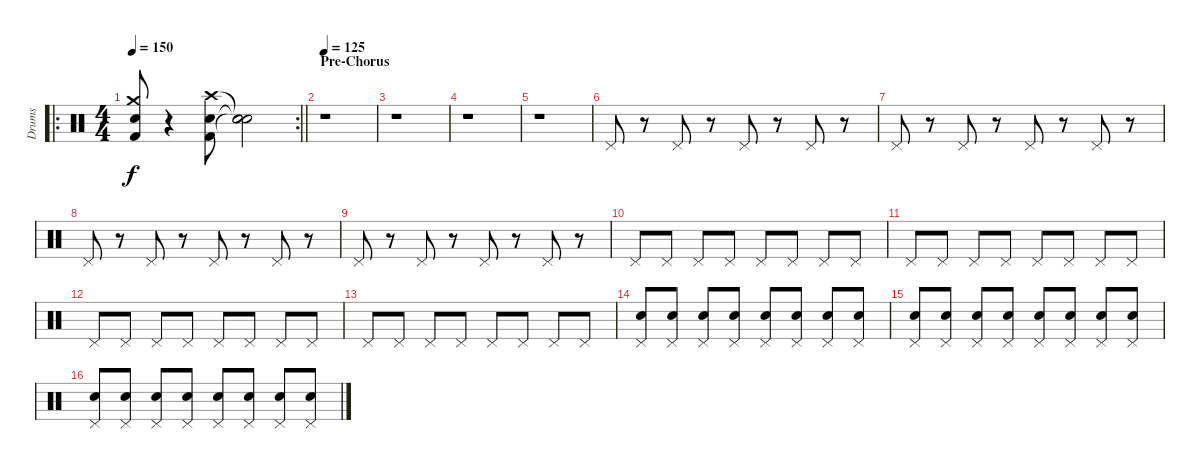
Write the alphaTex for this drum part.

\track ("Drums" "Drums") {instrument percussion}
\staff {score}
\articulation defaults
\ro
\rc 2
\ts (4 4)
\tempo 150
\clef neutral
\barLineRight lightlight
\ks c
("Snare (hit) 2" "Crash medium (hit)" "Kick (hit) 2").8{dy f} r.4 ("Snare (hit) 2" "Crash high (hit)" "Kick (hit) 2").8 ("Snare (hit)"{t} "Snare (hit)"{t} "Snare (hit)"{t}).2 |
\section ("" "Pre-Chorus")
\tempo 125
r.1 |
r.1 |
r.1 |
r.1 |
"Pedal Hi-Hat (hit)".8 r.8 "Pedal Hi-Hat (hit)".8 r.8 "Pedal Hi-Hat (hit)".8 r.8 "Pedal Hi-Hat (hit)".8 r.8 |
"Pedal Hi-Hat (hit)".8 r.8 "Pedal Hi-Hat (hit)".8 r.8 "Pedal Hi-Hat (hit)".8 r.8 "Pedal Hi-Hat (hit)".8 r.8 |
"Pedal Hi-Hat (hit)".8 r.8 "Pedal Hi-Hat (hit)".8 r.8 "Pedal Hi-Hat (hit)".8 r.8 "Pedal Hi-Hat (hit)".8 r.8 |
"Pedal Hi-Hat (hit)".8 r.8 "Pedal Hi-Hat (hit)".8 r.8 "Pedal Hi-Hat (hit)".8 r.8 "Pedal Hi-Hat (hit)".8 r.8 |
"Pedal Hi-Hat (hit)".8 "Pedal Hi-Hat (hit)".8 "Pedal Hi-Hat (hit)".8 "Pedal Hi-Hat (hit)".8 "Pedal Hi-Hat (hit)".8 "Pedal Hi-Hat (hit)".8 "Pedal Hi-Hat (hit)".8 "Pedal Hi-Hat (hit)".8 |
"Pedal Hi-Hat (hit)".8 "Pedal Hi-Hat (hit)".8 "Pedal Hi-Hat (hit)".8 "Pedal Hi-Hat (hit)".8 "Pedal Hi-Hat (hit)".8 "Pedal Hi-Hat (hit)".8 "Pedal Hi-Hat (hit)".8 "Pedal Hi-Hat (hit)".8 |
"Pedal Hi-Hat (hit)".8 "Pedal Hi-Hat (hit)".8 "Pedal Hi-Hat (hit)".8 "Pedal Hi-Hat (hit)".8 "Pedal Hi-Hat (hit)".8 "Pedal Hi-Hat (hit)".8 "Pedal Hi-Hat (hit)".8 "Pedal Hi-Hat (hit)".8 |
"Pedal Hi-Hat (hit)".8 "Pedal Hi-Hat (hit)".8 "Pedal Hi-Hat (hit)".8 "Pedal Hi-Hat (hit)".8 "Pedal Hi-Hat (hit)".8 "Pedal Hi-Hat (hit)".8 "Pedal Hi-Hat (hit)".8 "Pedal Hi-Hat (hit)".8 |
("Snare (hit) 2" "Pedal Hi-Hat (hit)").8{volume 2} ("Snare (hit) 2" "Pedal Hi-Hat (hit)").8 ("Snare (hit) 2" "Pedal Hi-Hat (hit)").8{volume 3} ("Snare (hit) 2" "Pedal Hi-Hat (hit)").8 ("Snare (hit) 2" "Pedal Hi-Hat (hit)").8{volume 4} ("Snare (hit) 2" "Pedal Hi-Hat (hit)").8 ("Snare (hit) 2" "Pedal Hi-Hat (hit)").8{volume 5} ("Snare (hit) 2" "Pedal Hi-Hat (hit)").8 |
("Snare (hit) 2" "Pedal Hi-Hat (hit)").8{volume 6} ("Snare (hit) 2" "Pedal Hi-Hat (hit)").8 ("Snare (hit) 2" "Pedal Hi-Hat (hit)").8{volume 7} ("Snare (hit) 2" "Pedal Hi-Hat (hit)").8 ("Snare (hit) 2" "Pedal Hi-Hat (hit)").8{volume 8} ("Snare (hit) 2" "Pedal Hi-Hat (hit)").8 ("Snare (hit) 2" "Pedal Hi-Hat (hit)").8{volume 9} ("Snare (hit) 2" "Pedal Hi-Hat (hit)").8 |
("Snare (hit) 2" "Pedal Hi-Hat (hit)").8{volume 10} ("Snare (hit) 2" "Pedal Hi-Hat (hit)").8 ("Snare (hit) 2" "Pedal Hi-Hat (hit)").8{volume 11} ("Snare (hit) 2" "Pedal Hi-Hat (hit)").8 ("Snare (hit) 2" "Pedal Hi-Hat (hit)").8{volume 12} ("Snare (hit) 2" "Pedal Hi-Hat (hit)").8 ("Snare (hit) 2" "Pedal Hi-Hat (hit)").8{volume 13} ("Snare (hit) 2" "Pedal Hi-Hat (hit)").8
